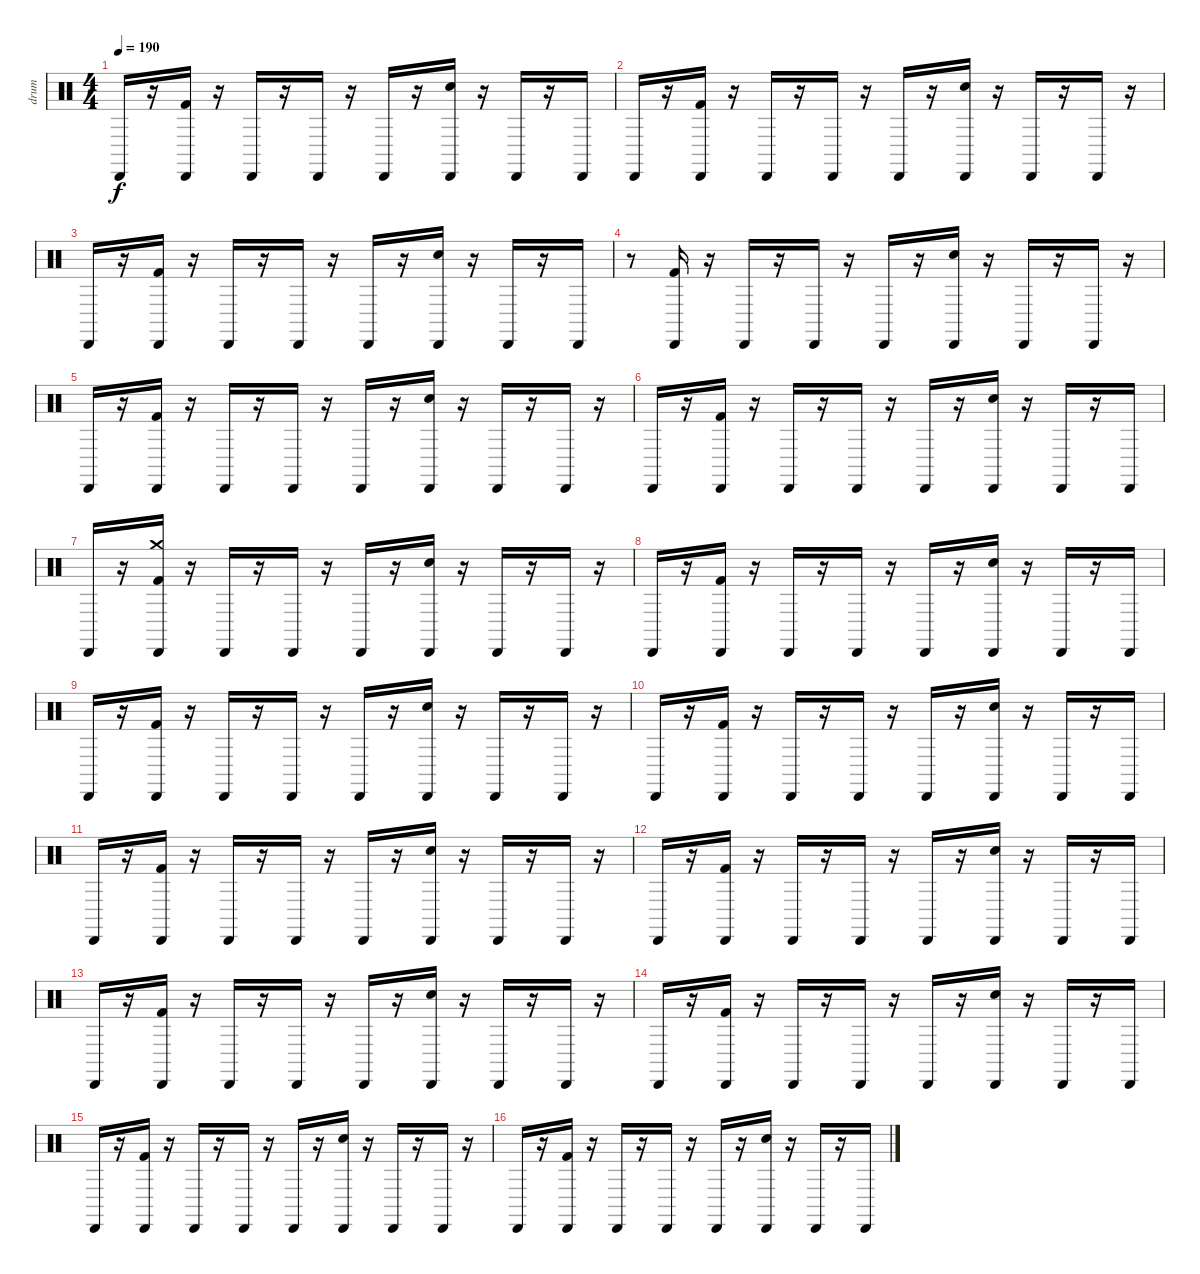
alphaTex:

\track ("drum" "drum") {instrument percussion}
\staff {score}
\articulation defaults
\ts (4 4)
\tempo 190
\clef neutral
\ks c "Cabasa (hit)".16{dy f}
r.16 ("Cabasa (hit)" "Kick (hit) 2").16 r.16 "Cabasa (hit)".16 r.16 "Cabasa (hit)".16 r.16 "Cabasa (hit)".16 r.16 ("Cabasa (hit)" "Snare (hit) 2").16 r.16 "Cabasa (hit)".16 r.16 "Cabasa (hit)".16 |
"Cabasa (hit)".16 r.16 ("Cabasa (hit)" "Kick (hit) 2").16 r.16 "Cabasa (hit)".16 r.16 "Cabasa (hit)".16 r.16 "Cabasa (hit)".16 r.16 ("Cabasa (hit)" "Snare (hit) 2").16 r.16 "Cabasa (hit)".16 r.16 "Cabasa (hit)".16 r.16 |
"Cabasa (hit)".16 r.16 ("Cabasa (hit)" "Kick (hit) 2").16 r.16 "Cabasa (hit)".16 r.16 "Cabasa (hit)".16 r.16 "Cabasa (hit)".16 r.16 ("Cabasa (hit)" "Snare (hit) 2").16 r.16 "Cabasa (hit)".16 r.16 "Cabasa (hit)".16 |
r.8 ("Cabasa (hit)" "Kick (hit) 2").16 r.16 "Cabasa (hit)".16 r.16 "Cabasa (hit)".16 r.16 "Cabasa (hit)".16 r.16 ("Cabasa (hit)" "Snare (hit) 2").16 r.16 "Cabasa (hit)".16 r.16 "Cabasa (hit)".16 r.16 |
"Cabasa (hit)".16 r.16 ("Cabasa (hit)" "Kick (hit) 2").16 r.16 "Cabasa (hit)".16 r.16 "Cabasa (hit)".16 r.16 "Cabasa (hit)".16 r.16 ("Cabasa (hit)" "Snare (hit) 2").16 r.16 "Cabasa (hit)".16 r.16 "Cabasa (hit)".16 r.16 |
"Cabasa (hit)".16 r.16 ("Cabasa (hit)" "Kick (hit) 2").16 r.16 "Cabasa (hit)".16 r.16 "Cabasa (hit)".16 r.16 "Cabasa (hit)".16 r.16 ("Cabasa (hit)" "Snare (hit) 2").16 r.16 "Cabasa (hit)".16 r.16 "Cabasa (hit)".16 |
"Cabasa (hit)".16 r.16 ("Cabasa (hit)" "Kick (hit) 2" "Crash medium (hit)").16 r.16 "Cabasa (hit)".16 r.16 "Cabasa (hit)".16 r.16 "Cabasa (hit)".16 r.16 ("Cabasa (hit)" "Snare (hit) 2").16 r.16 "Cabasa (hit)".16 r.16 "Cabasa (hit)".16 r.16 |
"Cabasa (hit)".16 r.16 ("Cabasa (hit)" "Kick (hit) 2").16 r.16 "Cabasa (hit)".16 r.16 "Cabasa (hit)".16 r.16 "Cabasa (hit)".16 r.16 ("Cabasa (hit)" "Snare (hit) 2").16 r.16 "Cabasa (hit)".16 r.16 "Cabasa (hit)".16 |
"Cabasa (hit)".16 r.16 ("Cabasa (hit)" "Kick (hit) 2").16 r.16 "Cabasa (hit)".16 r.16 "Cabasa (hit)".16 r.16 "Cabasa (hit)".16 r.16 ("Cabasa (hit)" "Snare (hit) 2").16 r.16 "Cabasa (hit)".16 r.16 "Cabasa (hit)".16 r.16 |
"Cabasa (hit)".16 r.16 ("Cabasa (hit)" "Kick (hit) 2").16 r.16 "Cabasa (hit)".16 r.16 "Cabasa (hit)".16 r.16 "Cabasa (hit)".16 r.16 ("Cabasa (hit)" "Snare (hit) 2").16 r.16 "Cabasa (hit)".16 r.16 "Cabasa (hit)".16 |
"Cabasa (hit)".16 r.16 ("Cabasa (hit)" "Kick (hit) 2").16 r.16 "Cabasa (hit)".16 r.16 "Cabasa (hit)".16 r.16 "Cabasa (hit)".16 r.16 ("Cabasa (hit)" "Snare (hit) 2").16 r.16 "Cabasa (hit)".16 r.16 "Cabasa (hit)".16 r.16 |
"Cabasa (hit)".16 r.16 ("Cabasa (hit)" "Kick (hit) 2").16 r.16 "Cabasa (hit)".16 r.16 "Cabasa (hit)".16 r.16 "Cabasa (hit)".16 r.16 ("Cabasa (hit)" "Snare (hit) 2").16 r.16 "Cabasa (hit)".16 r.16 "Cabasa (hit)".16 |
"Cabasa (hit)".16 r.16 ("Cabasa (hit)" "Kick (hit) 2").16 r.16 "Cabasa (hit)".16 r.16 "Cabasa (hit)".16 r.16 "Cabasa (hit)".16 r.16 ("Cabasa (hit)" "Snare (hit) 2").16 r.16 "Cabasa (hit)".16 r.16 "Cabasa (hit)".16 r.16 |
"Cabasa (hit)".16 r.16 ("Cabasa (hit)" "Kick (hit) 2").16 r.16 "Cabasa (hit)".16 r.16 "Cabasa (hit)".16 r.16 "Cabasa (hit)".16 r.16 ("Cabasa (hit)" "Snare (hit) 2").16 r.16 "Cabasa (hit)".16 r.16 "Cabasa (hit)".16 |
"Cabasa (hit)".16 r.16 ("Cabasa (hit)" "Kick (hit) 2").16 r.16 "Cabasa (hit)".16 r.16 "Cabasa (hit)".16 r.16 "Cabasa (hit)".16 r.16 ("Cabasa (hit)" "Snare (hit) 2").16 r.16 "Cabasa (hit)".16 r.16 "Cabasa (hit)".16 r.16 |
"Cabasa (hit)".16 r.16 ("Cabasa (hit)" "Kick (hit) 2").16 r.16 "Cabasa (hit)".16 r.16 "Cabasa (hit)".16 r.16 "Cabasa (hit)".16 r.16 ("Cabasa (hit)" "Snare (hit) 2").16 r.16 "Cabasa (hit)".16 r.16 "Cabasa (hit)".16
